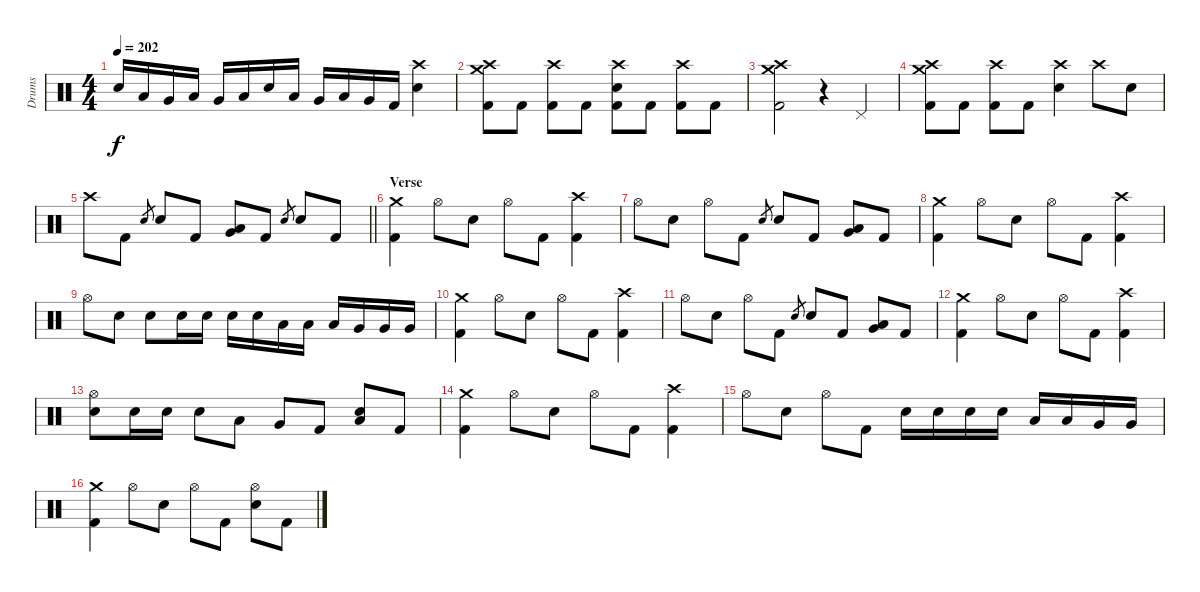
\track ("Drums" "Drums") {instrument percussion}
\staff {score}
\articulation defaults
\ts (4 4)
\tempo 202
\clef neutral
\ks c "Electric Snare (hit)".16{dy f} "Low Tom (hit)".16 "Very Low Tom (hit)".16 "Low Tom (hit)".16 "Very Low Tom (hit)".16 "Low Tom (hit)".16 "Electric Snare (hit)".16 "Low Tom (hit)".16 "Very Low Tom (hit)".16 "Low Tom (hit)".16 "Very Low Tom (hit)".16 "Kick (hit) 2".16
("Crash high (hit)" "Electric Snare (hit)").4 |
("Crash medium (hit)" "Crash high (hit)" "Kick (hit) 2").8 "Kick (hit) 2".8 ("Crash high (hit)" "Kick (hit) 2").8 "Kick (hit) 2".8 ("Crash high (hit)" "Electric Snare (hit)" "Kick (hit) 2").8 "Kick (hit) 2".8 ("Crash high (hit)" "Kick (hit) 2").8 "Kick (hit) 2".8 |
("Crash medium (hit)" "Crash high (hit)" "Kick (hit) 2").2 r.4{volume 0} "Pedal Hi-Hat (hit)".4 |
("Crash medium (hit)" "Crash high (hit)" "Kick (hit) 2").8{volume 14} "Kick (hit) 2".8 ("Crash high (hit)" "Kick (hit) 2").8 "Kick (hit) 2".8 ("Crash high (hit)" "Electric Snare (hit)").4 "Crash high (hit)".8 "Electric Snare (hit)".8 |
\barLineRight lightlight "Crash high (hit)".8 "Kick (hit) 2".8 "Electric Snare (hit)".8{gr} "Electric Snare (hit)".8 "Kick (hit) 2".8
("Very Low Tom (hit)" "Low Floor Tom (hit)").8 "Kick (hit) 2".8 "Electric Snare (hit)".8{gr} "Electric Snare (hit)".8 "Kick (hit) 2".8 |
\section ("" "Verse")
("Crash medium (hit)" "Kick (hit) 2").4 "Hi-Hat (open)".8 "Electric Snare (hit)".8 "Hi-Hat (open)".8 "Kick (hit) 2".8 ("Crash high (hit)" "Kick (hit) 2").4 |
"Hi-Hat (open)".8 "Electric Snare (hit)".8 "Hi-Hat (open)".8 "Kick (hit) 2".8 "Electric Snare (hit)".8{gr} "Electric Snare (hit)".8 "Kick (hit) 2".8 ("Very Low Tom (hit)" "Low Floor Tom (hit)").8 "Kick (hit) 2".8 |
("Crash medium (hit)" "Kick (hit) 2").4 "Hi-Hat (open)".8 "Electric Snare (hit)".8 "Hi-Hat (open)".8 "Kick (hit) 2".8 ("Crash high (hit)" "Kick (hit) 2").4 |
"Hi-Hat (open)".8 "Electric Snare (hit)".8 "Electric Snare (hit)".8 "Electric Snare (hit)".16 "Electric Snare (hit)".16 "Electric Snare (hit)".16 "Electric Snare (hit)".16 "Low Tom (hit)".16 "Low Tom (hit)".16 "Low Tom (hit)".16 "Very Low Tom (hit)".16 "Very Low Tom (hit)".16 "Very Low Tom (hit)".16 |
("Crash medium (hit)" "Kick (hit) 2").4 "Hi-Hat (open)".8 "Electric Snare (hit)".8 "Hi-Hat (open)".8 "Kick (hit) 2".8 ("Crash high (hit)" "Kick (hit) 2").4 |
"Hi-Hat (open)".8 "Electric Snare (hit)".8 "Hi-Hat (open)".8 "Kick (hit) 2".8 "Electric Snare (hit)".8{gr} "Electric Snare (hit)".8 "Kick (hit) 2".8 ("Very Low Tom (hit)" "Low Floor Tom (hit)").8 "Kick (hit) 2".8 |
("Crash medium (hit)" "Kick (hit) 2").4 "Hi-Hat (open)".8 "Electric Snare (hit)".8 "Hi-Hat (open)".8 "Kick (hit) 2".8 ("Crash high (hit)" "Kick (hit) 2").4 |
("Hi-Hat (open)" "Electric Snare (hit)").8 "Electric Snare (hit)".16 "Electric Snare (hit)".16 "Electric Snare (hit)".8 "Low Tom (hit)".8 "Very Low Tom (hit)".8 "Kick (hit) 2".8 ("Electric Snare (hit)" "Low Floor Tom (hit)").8 "Kick (hit) 2".8 |
("Crash medium (hit)" "Kick (hit) 2").4 "Hi-Hat (open)".8 "Electric Snare (hit)".8 "Hi-Hat (open)".8 "Kick (hit) 2".8 ("Crash high (hit)" "Kick (hit) 2").4 |
"Hi-Hat (open)".8 "Electric Snare (hit)".8 "Hi-Hat (open)".8 "Kick (hit) 2".8 "Electric Snare (hit)".16 "Electric Snare (hit)".16 "Electric Snare (hit)".16 "Electric Snare (hit)".16 "Low Tom (hit)".16 "Low Tom (hit)".16 "Very Low Tom (hit)".16 "Very Low Tom (hit)".16 |
("Crash medium (hit)" "Kick (hit) 2").4 "Hi-Hat (open)".8 "Electric Snare (hit)".8 "Hi-Hat (open)".8 "Kick (hit) 2".8 ("Hi-Hat (open)" "Electric Snare (hit)").8 "Kick (hit) 2".8
